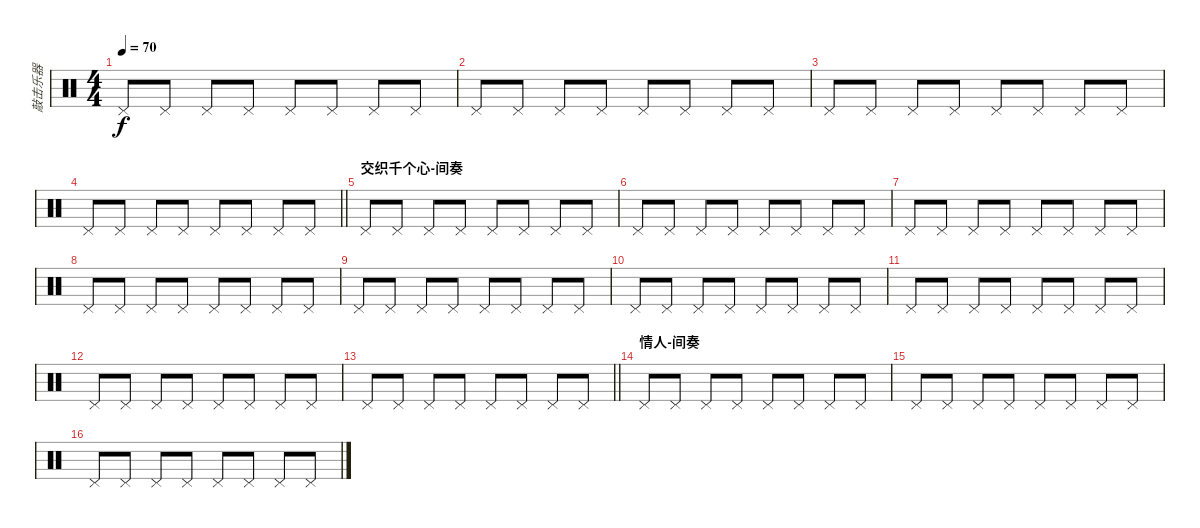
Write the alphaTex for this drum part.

\track ("敲击乐器" "敲击乐器") {instrument percussion}
\staff {score}
\articulation defaults
\ts (4 4)
\tempo 70
\clef neutral
\ks c "Pedal Hi-Hat (hit)".8{dy f} "Pedal Hi-Hat (hit)".8 "Pedal Hi-Hat (hit)".8 "Pedal Hi-Hat (hit)".8 "Pedal Hi-Hat (hit)".8 "Pedal Hi-Hat (hit)".8 "Pedal Hi-Hat (hit)".8 "Pedal Hi-Hat (hit)".8
|
"Pedal Hi-Hat (hit)".8 "Pedal Hi-Hat (hit)".8 "Pedal Hi-Hat (hit)".8 "Pedal Hi-Hat (hit)".8 "Pedal Hi-Hat (hit)".8 "Pedal Hi-Hat (hit)".8 "Pedal Hi-Hat (hit)".8 "Pedal Hi-Hat (hit)".8 |
"Pedal Hi-Hat (hit)".8 "Pedal Hi-Hat (hit)".8 "Pedal Hi-Hat (hit)".8 "Pedal Hi-Hat (hit)".8 "Pedal Hi-Hat (hit)".8 "Pedal Hi-Hat (hit)".8 "Pedal Hi-Hat (hit)".8 "Pedal Hi-Hat (hit)".8 |
\barLineRight lightlight "Pedal Hi-Hat (hit)".8 "Pedal Hi-Hat (hit)".8 "Pedal Hi-Hat (hit)".8 "Pedal Hi-Hat (hit)".8 "Pedal Hi-Hat (hit)".8 "Pedal Hi-Hat (hit)".8 "Pedal Hi-Hat (hit)".8 "Pedal Hi-Hat (hit)".8
|
\section ("" "交织千个心-间奏")
"Pedal Hi-Hat (hit)".8 "Pedal Hi-Hat (hit)".8 "Pedal Hi-Hat (hit)".8 "Pedal Hi-Hat (hit)".8 "Pedal Hi-Hat (hit)".8 "Pedal Hi-Hat (hit)".8 "Pedal Hi-Hat (hit)".8 "Pedal Hi-Hat (hit)".8 |
"Pedal Hi-Hat (hit)".8 "Pedal Hi-Hat (hit)".8 "Pedal Hi-Hat (hit)".8 "Pedal Hi-Hat (hit)".8 "Pedal Hi-Hat (hit)".8 "Pedal Hi-Hat (hit)".8 "Pedal Hi-Hat (hit)".8 "Pedal Hi-Hat (hit)".8 |
"Pedal Hi-Hat (hit)".8 "Pedal Hi-Hat (hit)".8 "Pedal Hi-Hat (hit)".8 "Pedal Hi-Hat (hit)".8 "Pedal Hi-Hat (hit)".8 "Pedal Hi-Hat (hit)".8 "Pedal Hi-Hat (hit)".8 "Pedal Hi-Hat (hit)".8 |
"Pedal Hi-Hat (hit)".8 "Pedal Hi-Hat (hit)".8 "Pedal Hi-Hat (hit)".8 "Pedal Hi-Hat (hit)".8 "Pedal Hi-Hat (hit)".8 "Pedal Hi-Hat (hit)".8 "Pedal Hi-Hat (hit)".8 "Pedal Hi-Hat (hit)".8 |
"Pedal Hi-Hat (hit)".8 "Pedal Hi-Hat (hit)".8 "Pedal Hi-Hat (hit)".8 "Pedal Hi-Hat (hit)".8 "Pedal Hi-Hat (hit)".8 "Pedal Hi-Hat (hit)".8 "Pedal Hi-Hat (hit)".8 "Pedal Hi-Hat (hit)".8 |
"Pedal Hi-Hat (hit)".8 "Pedal Hi-Hat (hit)".8 "Pedal Hi-Hat (hit)".8 "Pedal Hi-Hat (hit)".8 "Pedal Hi-Hat (hit)".8 "Pedal Hi-Hat (hit)".8 "Pedal Hi-Hat (hit)".8 "Pedal Hi-Hat (hit)".8 |
"Pedal Hi-Hat (hit)".8 "Pedal Hi-Hat (hit)".8 "Pedal Hi-Hat (hit)".8 "Pedal Hi-Hat (hit)".8 "Pedal Hi-Hat (hit)".8 "Pedal Hi-Hat (hit)".8 "Pedal Hi-Hat (hit)".8 "Pedal Hi-Hat (hit)".8 |
"Pedal Hi-Hat (hit)".8 "Pedal Hi-Hat (hit)".8 "Pedal Hi-Hat (hit)".8 "Pedal Hi-Hat (hit)".8 "Pedal Hi-Hat (hit)".8 "Pedal Hi-Hat (hit)".8 "Pedal Hi-Hat (hit)".8 "Pedal Hi-Hat (hit)".8 |
\barLineRight lightlight "Pedal Hi-Hat (hit)".8 "Pedal Hi-Hat (hit)".8 "Pedal Hi-Hat (hit)".8 "Pedal Hi-Hat (hit)".8 "Pedal Hi-Hat (hit)".8 "Pedal Hi-Hat (hit)".8 "Pedal Hi-Hat (hit)".8 "Pedal Hi-Hat (hit)".8
|
\section ("" "情人-间奏")
"Pedal Hi-Hat (hit)".8 "Pedal Hi-Hat (hit)".8 "Pedal Hi-Hat (hit)".8 "Pedal Hi-Hat (hit)".8 "Pedal Hi-Hat (hit)".8 "Pedal Hi-Hat (hit)".8 "Pedal Hi-Hat (hit)".8 "Pedal Hi-Hat (hit)".8 |
"Pedal Hi-Hat (hit)".8 "Pedal Hi-Hat (hit)".8 "Pedal Hi-Hat (hit)".8 "Pedal Hi-Hat (hit)".8 "Pedal Hi-Hat (hit)".8 "Pedal Hi-Hat (hit)".8 "Pedal Hi-Hat (hit)".8 "Pedal Hi-Hat (hit)".8 |
"Pedal Hi-Hat (hit)".8 "Pedal Hi-Hat (hit)".8 "Pedal Hi-Hat (hit)".8 "Pedal Hi-Hat (hit)".8 "Pedal Hi-Hat (hit)".8 "Pedal Hi-Hat (hit)".8 "Pedal Hi-Hat (hit)".8 "Pedal Hi-Hat (hit)".8
